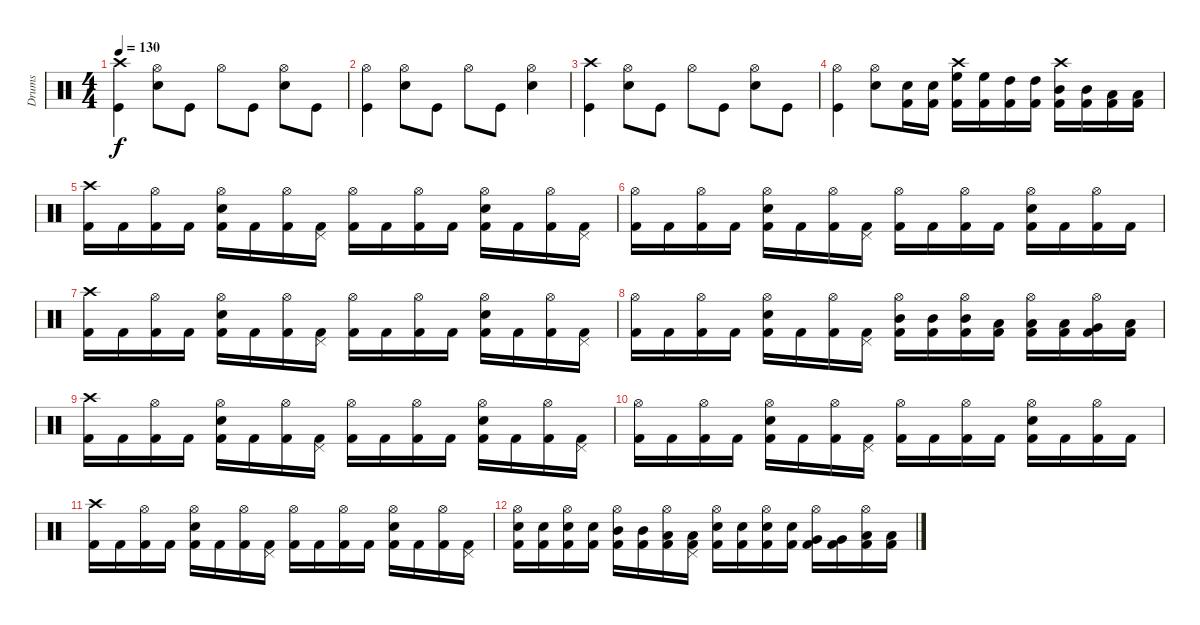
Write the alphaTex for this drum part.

\track ("Drums" "Drums") {instrument percussion}
\staff {score}
\articulation defaults
\ts (4 4)
\tempo 130
\clef neutral
\ks c
("Crash high (hit)" "Kick (hit)").4{dy f} ("Hi-Hat (open)" "Snare (hit) 2").8 "Kick (hit)".8 "Hi-Hat (open)".8 "Kick (hit)".8 ("Hi-Hat (open)" "Snare (hit) 2").8 "Kick (hit)".8 |
("Hi-Hat (open)" "Kick (hit)").4 ("Hi-Hat (open)" "Snare (hit) 2").8 "Kick (hit)".8 "Hi-Hat (open)".8 "Kick (hit)".8 ("Hi-Hat (open)" "Snare (hit) 2").4 |
("Crash high (hit)" "Kick (hit)").4 ("Hi-Hat (open)" "Snare (hit) 2").8 "Kick (hit)".8 "Hi-Hat (open)".8 "Kick (hit)".8 ("Hi-Hat (open)" "Snare (hit) 2").8 "Kick (hit)".8 |
("Hi-Hat (open)" "Kick (hit)").4 ("Hi-Hat (open)" "Snare (hit) 2").8 ("Snare (hit) 2" "Kick (hit) 2").16 ("Snare (hit) 2" "Kick (hit) 2").16 ("Crash high (hit)" "High Floor Tom (hit)" "Kick (hit) 2").16 ("High Floor Tom (hit)" "Kick (hit) 2").16 ("High Tom (hit)" "Kick (hit) 2").16 ("High Tom (hit)" "Kick (hit) 2").16 ("Crash high (hit)" "Mid Tom (hit)" "Kick (hit) 2").16 ("Mid Tom (hit)" "Kick (hit) 2").16 ("Low Tom (hit)" "Kick (hit) 2").16 ("Low Tom (hit)" "Kick (hit) 2").16 |
("Crash high (hit)" "Kick (hit) 2").16 "Kick (hit) 2".16 ("Hi-Hat (open)" "Kick (hit) 2").16 "Kick (hit) 2".16 ("Hi-Hat (open)" "Snare (hit) 2" "Kick (hit) 2").16 "Kick (hit) 2".16 ("Hi-Hat (open)" "Kick (hit) 2").16 ("Pedal Hi-Hat (hit)" "Kick (hit) 2").16 ("Hi-Hat (open)" "Kick (hit) 2").16 "Kick (hit) 2".16 ("Hi-Hat (open)" "Kick (hit) 2").16 "Kick (hit) 2".16 ("Hi-Hat (open)" "Snare (hit) 2" "Kick (hit) 2").16 "Kick (hit) 2".16 ("Hi-Hat (open)" "Kick (hit) 2").16 ("Pedal Hi-Hat (hit)" "Kick (hit) 2").16 |
("Hi-Hat (open)" "Kick (hit) 2").16 "Kick (hit) 2".16 ("Hi-Hat (open)" "Kick (hit) 2").16 "Kick (hit) 2".16 ("Hi-Hat (open)" "Snare (hit) 2" "Kick (hit) 2").16 "Kick (hit) 2".16 ("Hi-Hat (open)" "Kick (hit) 2").16 ("Pedal Hi-Hat (hit)" "Kick (hit) 2").16 ("Hi-Hat (open)" "Kick (hit) 2").16 "Kick (hit) 2".16 ("Hi-Hat (open)" "Kick (hit) 2").16 "Kick (hit) 2".16 ("Hi-Hat (open)" "Snare (hit) 2" "Kick (hit) 2").16 "Kick (hit) 2".16 ("Hi-Hat (open)" "Kick (hit) 2").16 "Kick (hit) 2".16 |
("Crash high (hit)" "Kick (hit) 2").16 "Kick (hit) 2".16 ("Hi-Hat (open)" "Kick (hit) 2").16 "Kick (hit) 2".16 ("Hi-Hat (open)" "Snare (hit) 2" "Kick (hit) 2").16 "Kick (hit) 2".16 ("Hi-Hat (open)" "Kick (hit) 2").16 ("Pedal Hi-Hat (hit)" "Kick (hit) 2").16 ("Hi-Hat (open)" "Kick (hit) 2").16 "Kick (hit) 2".16 ("Hi-Hat (open)" "Kick (hit) 2").16 "Kick (hit) 2".16 ("Hi-Hat (open)" "Snare (hit) 2" "Kick (hit) 2").16 "Kick (hit) 2".16 ("Hi-Hat (open)" "Kick (hit) 2").16 ("Pedal Hi-Hat (hit)" "Kick (hit) 2").16 |
("Hi-Hat (open)" "Kick (hit) 2").16 "Kick (hit) 2".16 ("Hi-Hat (open)" "Kick (hit) 2").16 "Kick (hit) 2".16 ("Hi-Hat (open)" "Snare (hit) 2" "Kick (hit) 2").16 "Kick (hit) 2".16 ("Hi-Hat (open)" "Kick (hit) 2").16 ("Pedal Hi-Hat (hit)" "Kick (hit) 2").16 ("Hi-Hat (open)" "Mid Tom (hit)" "Kick (hit) 2").16 ("Mid Tom (hit)" "Kick (hit) 2").16 ("Hi-Hat (open)" "Mid Tom (hit)" "Kick (hit) 2").16 ("Low Tom (hit)" "Kick (hit) 2").16 ("Hi-Hat (open)" "Low Tom (hit)" "Kick (hit) 2").16 ("Low Tom (hit)" "Kick (hit) 2").16 ("Hi-Hat (open)" "Very Low Tom (hit)" "Kick (hit) 2").16 ("Low Floor Tom (hit)" "Kick (hit) 2").16 |
("Crash high (hit)" "Kick (hit) 2").16 "Kick (hit) 2".16 ("Hi-Hat (open)" "Kick (hit) 2").16 "Kick (hit) 2".16 ("Hi-Hat (open)" "Snare (hit) 2" "Kick (hit) 2").16 "Kick (hit) 2".16 ("Hi-Hat (open)" "Kick (hit) 2").16 ("Pedal Hi-Hat (hit)" "Kick (hit) 2").16 ("Hi-Hat (open)" "Kick (hit) 2").16 "Kick (hit) 2".16 ("Hi-Hat (open)" "Kick (hit) 2").16 "Kick (hit) 2".16 ("Hi-Hat (open)" "Snare (hit) 2" "Kick (hit) 2").16 "Kick (hit) 2".16 ("Hi-Hat (open)" "Kick (hit) 2").16 ("Pedal Hi-Hat (hit)" "Kick (hit) 2").16 |
("Hi-Hat (open)" "Kick (hit) 2").16 "Kick (hit) 2".16 ("Hi-Hat (open)" "Kick (hit) 2").16 "Kick (hit) 2".16 ("Hi-Hat (open)" "Snare (hit) 2" "Kick (hit) 2").16 "Kick (hit) 2".16 ("Hi-Hat (open)" "Kick (hit) 2").16 ("Pedal Hi-Hat (hit)" "Kick (hit) 2").16 ("Hi-Hat (open)" "Kick (hit) 2").16 "Kick (hit) 2".16 ("Hi-Hat (open)" "Kick (hit) 2").16 "Kick (hit) 2".16 ("Hi-Hat (open)" "Snare (hit) 2" "Kick (hit) 2").16 "Kick (hit) 2".16 ("Hi-Hat (open)" "Kick (hit) 2").16 "Kick (hit) 2".16 |
("Crash high (hit)" "Kick (hit) 2").16 "Kick (hit) 2".16 ("Hi-Hat (open)" "Kick (hit) 2").16 "Kick (hit) 2".16 ("Hi-Hat (open)" "Snare (hit) 2" "Kick (hit) 2").16 "Kick (hit) 2".16 ("Hi-Hat (open)" "Kick (hit) 2").16 ("Pedal Hi-Hat (hit)" "Kick (hit) 2").16 ("Hi-Hat (open)" "Kick (hit) 2").16 "Kick (hit) 2".16 ("Hi-Hat (open)" "Kick (hit) 2").16 "Kick (hit) 2".16 ("Hi-Hat (open)" "Snare (hit) 2" "Kick (hit) 2").16 "Kick (hit) 2".16 ("Hi-Hat (open)" "Kick (hit) 2").16 ("Pedal Hi-Hat (hit)" "Kick (hit) 2").16 |
("Hi-Hat (open)" "Snare (hit) 2" "Kick (hit) 2").16 ("Snare (hit) 2" "Kick (hit) 2").16 ("Hi-Hat (open)" "Snare (hit) 2" "Kick (hit) 2").16 ("Snare (hit) 2" "Kick (hit) 2").16 ("Hi-Hat (open)" "Mid Tom (hit)" "Kick (hit) 2").16 ("Mid Tom (hit)" "Kick (hit) 2").16 ("Hi-Hat (open)" "Low Tom (hit)" "Kick (hit) 2").16 ("Pedal Hi-Hat (hit)" "Low Tom (hit)" "Kick (hit) 2").16 ("Hi-Hat (open)" "Snare (hit) 2" "Kick (hit) 2").16 ("Snare (hit) 2" "Kick (hit) 2").16 ("Hi-Hat (open)" "Snare (hit) 2" "Kick (hit) 2").16 ("Snare (hit) 2" "Kick (hit) 2").16 ("Hi-Hat (open)" "Very Low Tom (hit)" "Kick (hit) 2").16 ("Very Low Tom (hit)" "Kick (hit) 2").16 ("Hi-Hat (open)" "Low Floor Tom (hit)" "Kick (hit) 2").16 ("Low Floor Tom (hit)" "Kick (hit) 2").16
